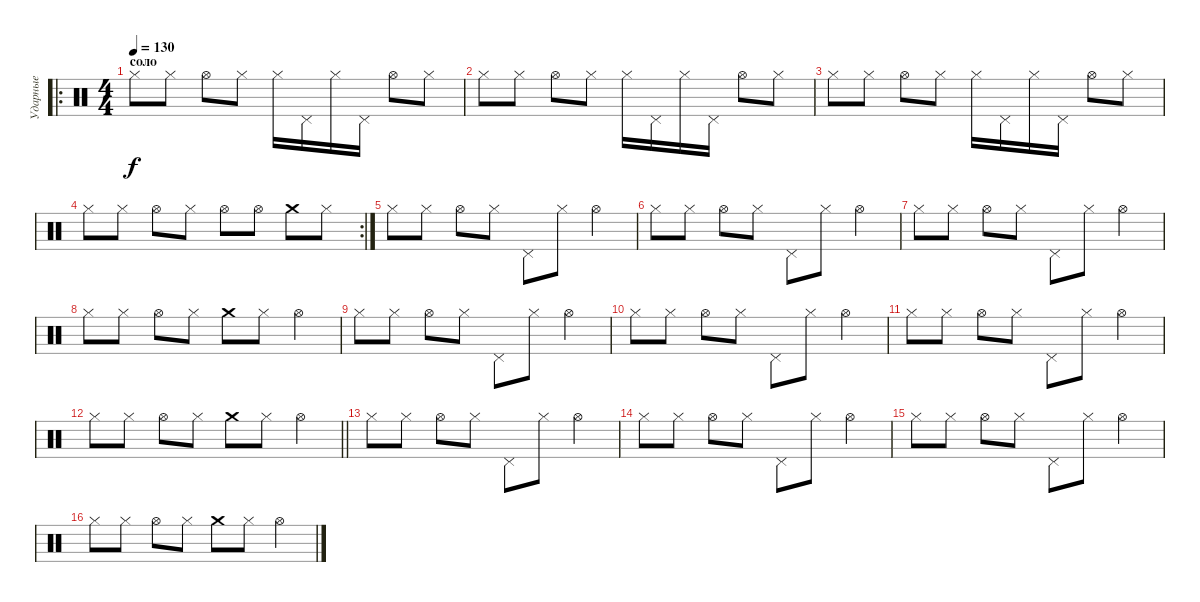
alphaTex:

\track ("Ударные" "Ударные") {instrument percussion}
\staff {score}
\articulation defaults
\ro
\ts (4 4)
\section ("" "соло")
\tempo 130
\clef neutral
\ks c "Hi-Hat (closed)".8{dy f} "Hi-Hat (closed)".8 "Hi-Hat (open)".8 "Hi-Hat (closed)".8 "Hi-Hat (closed)".16 "Pedal Hi-Hat (hit)".16 "Hi-Hat (closed)".16 "Pedal Hi-Hat (hit)".16 "Hi-Hat (open)".8 "Hi-Hat (closed)".8
|
"Hi-Hat (closed)".8 "Hi-Hat (closed)".8 "Hi-Hat (open)".8 "Hi-Hat (closed)".8 "Hi-Hat (closed)".16 "Pedal Hi-Hat (hit)".16 "Hi-Hat (closed)".16 "Pedal Hi-Hat (hit)".16 "Hi-Hat (open)".8 "Hi-Hat (closed)".8 |
"Hi-Hat (closed)".8 "Hi-Hat (closed)".8 "Hi-Hat (open)".8 "Hi-Hat (closed)".8 "Hi-Hat (closed)".16 "Pedal Hi-Hat (hit)".16 "Hi-Hat (closed)".16 "Pedal Hi-Hat (hit)".16 "Hi-Hat (open)".8 "Hi-Hat (closed)".8 |
\rc 2 "Hi-Hat (closed)".8 "Hi-Hat (closed)".8 "Hi-Hat (open)".8 "Hi-Hat (closed)".8 "Hi-Hat (open)".8 "Hi-Hat (open)".8 "Crash medium (hit)".8 "Hi-Hat (closed)".8
|
"Hi-Hat (closed)".8 "Hi-Hat (closed)".8 "Hi-Hat (open)".8 "Hi-Hat (closed)".8 "Pedal Hi-Hat (hit)".8 "Hi-Hat (closed)".8 "Hi-Hat (open)".4 |
"Hi-Hat (closed)".8 "Hi-Hat (closed)".8 "Hi-Hat (open)".8 "Hi-Hat (closed)".8 "Pedal Hi-Hat (hit)".8 "Hi-Hat (closed)".8 "Hi-Hat (open)".4 |
"Hi-Hat (closed)".8 "Hi-Hat (closed)".8 "Hi-Hat (open)".8 "Hi-Hat (closed)".8 "Pedal Hi-Hat (hit)".8 "Hi-Hat (closed)".8 "Hi-Hat (open)".4 |
"Hi-Hat (closed)".8 "Hi-Hat (closed)".8 "Hi-Hat (open)".8 "Hi-Hat (closed)".8 "Crash medium (hit)".8 "Hi-Hat (closed)".8 "Hi-Hat (open)".4 |
"Hi-Hat (closed)".8 "Hi-Hat (closed)".8 "Hi-Hat (open)".8 "Hi-Hat (closed)".8 "Pedal Hi-Hat (hit)".8 "Hi-Hat (closed)".8 "Hi-Hat (open)".4 |
"Hi-Hat (closed)".8 "Hi-Hat (closed)".8 "Hi-Hat (open)".8 "Hi-Hat (closed)".8 "Pedal Hi-Hat (hit)".8 "Hi-Hat (closed)".8 "Hi-Hat (open)".4 |
"Hi-Hat (closed)".8 "Hi-Hat (closed)".8 "Hi-Hat (open)".8 "Hi-Hat (closed)".8 "Pedal Hi-Hat (hit)".8 "Hi-Hat (closed)".8 "Hi-Hat (open)".4 |
\barLineRight lightlight "Hi-Hat (closed)".8 "Hi-Hat (closed)".8 "Hi-Hat (open)".8 "Hi-Hat (closed)".8 "Crash medium (hit)".8 "Hi-Hat (closed)".8 "Hi-Hat (open)".4
|
"Hi-Hat (closed)".8 "Hi-Hat (closed)".8 "Hi-Hat (open)".8 "Hi-Hat (closed)".8 "Pedal Hi-Hat (hit)".8 "Hi-Hat (closed)".8 "Hi-Hat (open)".4 |
"Hi-Hat (closed)".8 "Hi-Hat (closed)".8 "Hi-Hat (open)".8 "Hi-Hat (closed)".8 "Pedal Hi-Hat (hit)".8 "Hi-Hat (closed)".8 "Hi-Hat (open)".4 |
"Hi-Hat (closed)".8 "Hi-Hat (closed)".8 "Hi-Hat (open)".8 "Hi-Hat (closed)".8 "Pedal Hi-Hat (hit)".8 "Hi-Hat (closed)".8 "Hi-Hat (open)".4 |
"Hi-Hat (closed)".8 "Hi-Hat (closed)".8 "Hi-Hat (open)".8 "Hi-Hat (closed)".8 "Crash medium (hit)".8 "Hi-Hat (closed)".8 "Hi-Hat (open)".4
